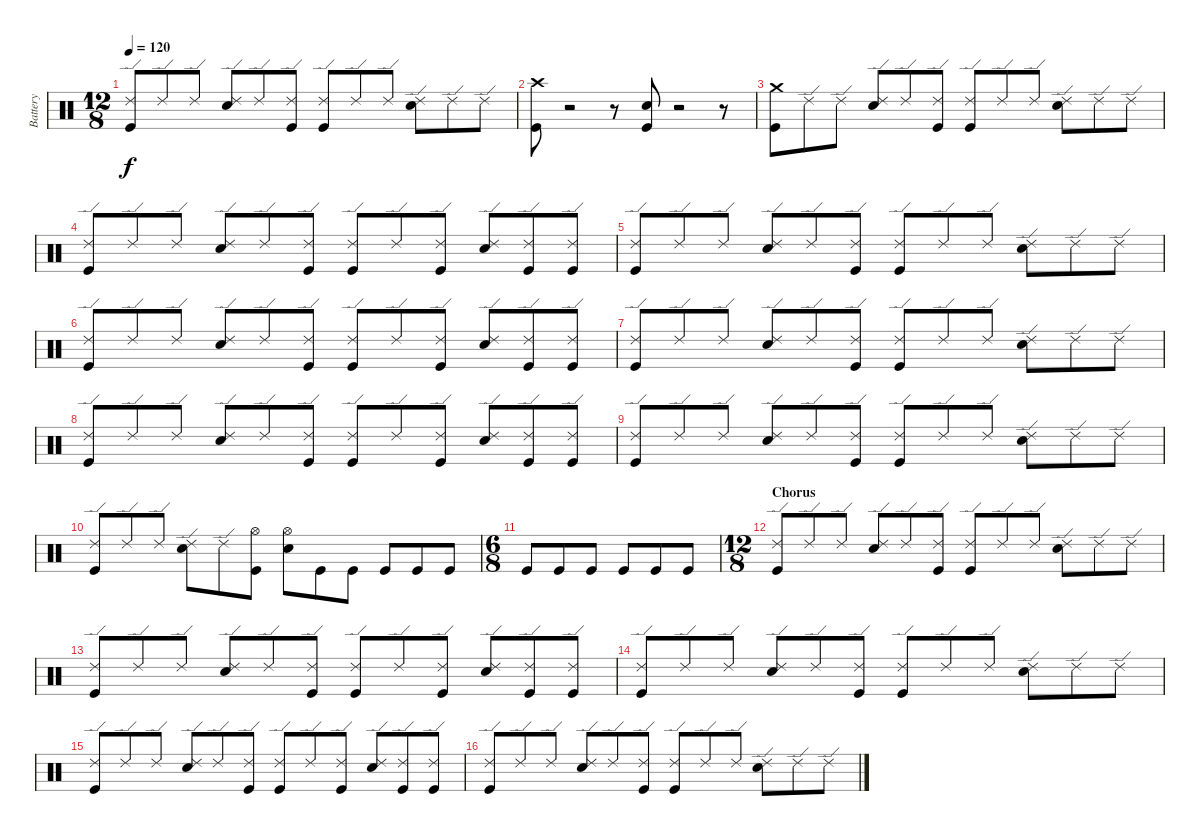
\track ("Battery" "Battery") {instrument percussion}
\staff {score}
\articulation defaults
\ts (12 8)
\tempo 120
\clef neutral
\ks c
("Ride (edge) 2" "Kick (hit)").8{dy f} "Ride (edge) 2".8 "Ride (edge) 2".8 ("Ride (edge) 2" "Electric Snare (hit)").8 "Ride (edge) 2".8 ("Ride (edge) 2" "Kick (hit)").8 ("Ride (edge) 2" "Kick (hit)").8 "Ride (edge) 2".8 "Ride (edge) 2".8 ("Ride (edge) 2" "Electric Snare (hit)").8 "Ride (edge) 2".8 "Ride (edge) 2".8 |
("Crash high (hit)" "Kick (hit)").8 r.2 r.8 ("Electric Snare (hit)" "Kick (hit)").8 r.2 r.8 |
("Crash medium (hit)" "Kick (hit)").8 "Ride (edge) 2".8 "Ride (edge) 2".8 ("Ride (edge) 2" "Electric Snare (hit)").8 "Ride (edge) 2".8 ("Ride (edge) 2" "Kick (hit)").8 ("Ride (edge) 2" "Kick (hit)").8 "Ride (edge) 2".8 "Ride (edge) 2".8 ("Ride (edge) 2" "Electric Snare (hit)").8 "Ride (edge) 2".8 "Ride (edge) 2".8 |
("Ride (edge) 2" "Kick (hit)").8 "Ride (edge) 2".8 "Ride (edge) 2".8 ("Ride (edge) 2" "Electric Snare (hit)").8 "Ride (edge) 2".8 ("Ride (edge) 2" "Kick (hit)").8 ("Ride (edge) 2" "Kick (hit)").8 "Ride (edge) 2".8 ("Ride (edge) 2" "Kick (hit)").8 ("Ride (edge) 2" "Electric Snare (hit)").8 ("Ride (edge) 2" "Kick (hit)").8 ("Ride (edge) 2" "Kick (hit)").8 |
("Ride (edge) 2" "Kick (hit)").8 "Ride (edge) 2".8 "Ride (edge) 2".8 ("Ride (edge) 2" "Electric Snare (hit)").8 "Ride (edge) 2".8 ("Ride (edge) 2" "Kick (hit)").8 ("Ride (edge) 2" "Kick (hit)").8 "Ride (edge) 2".8 "Ride (edge) 2".8 ("Ride (edge) 2" "Electric Snare (hit)").8 "Ride (edge) 2".8 "Ride (edge) 2".8 |
("Ride (edge) 2" "Kick (hit)").8 "Ride (edge) 2".8 "Ride (edge) 2".8 ("Ride (edge) 2" "Electric Snare (hit)").8 "Ride (edge) 2".8 ("Ride (edge) 2" "Kick (hit)").8 ("Ride (edge) 2" "Kick (hit)").8 "Ride (edge) 2".8 ("Ride (edge) 2" "Kick (hit)").8 ("Ride (edge) 2" "Electric Snare (hit)").8 ("Ride (edge) 2" "Kick (hit)").8 ("Ride (edge) 2" "Kick (hit)").8 |
("Ride (edge) 2" "Kick (hit)").8 "Ride (edge) 2".8 "Ride (edge) 2".8 ("Ride (edge) 2" "Electric Snare (hit)").8 "Ride (edge) 2".8 ("Ride (edge) 2" "Kick (hit)").8 ("Ride (edge) 2" "Kick (hit)").8 "Ride (edge) 2".8 "Ride (edge) 2".8 ("Ride (edge) 2" "Electric Snare (hit)").8 "Ride (edge) 2".8 "Ride (edge) 2".8 |
("Ride (edge) 2" "Kick (hit)").8 "Ride (edge) 2".8 "Ride (edge) 2".8 ("Ride (edge) 2" "Electric Snare (hit)").8 "Ride (edge) 2".8 ("Ride (edge) 2" "Kick (hit)").8 ("Ride (edge) 2" "Kick (hit)").8 "Ride (edge) 2".8 ("Ride (edge) 2" "Kick (hit)").8 ("Ride (edge) 2" "Electric Snare (hit)").8 ("Ride (edge) 2" "Kick (hit)").8 ("Ride (edge) 2" "Kick (hit)").8 |
("Ride (edge) 2" "Kick (hit)").8 "Ride (edge) 2".8 "Ride (edge) 2".8 ("Ride (edge) 2" "Electric Snare (hit)").8 "Ride (edge) 2".8 ("Ride (edge) 2" "Kick (hit)").8 ("Ride (edge) 2" "Kick (hit)").8 "Ride (edge) 2".8 "Ride (edge) 2".8 ("Ride (edge) 2" "Electric Snare (hit)").8 "Ride (edge) 2".8 "Ride (edge) 2".8 |
("Ride (edge) 2" "Kick (hit)").8 "Ride (edge) 2".8 "Ride (edge) 2".8 ("Ride (edge) 2" "Electric Snare (hit)").8 "Ride (edge) 2".8 ("Hi-Hat (open)" "Kick (hit)").8 ("Hi-Hat (open)" "Electric Snare (hit)").8 "Kick (hit)".8 "Kick (hit)".8 "Kick (hit)".8 "Kick (hit)".8 "Kick (hit)".8 |
\ts (6 8)
"Kick (hit)".8 "Kick (hit)".8 "Kick (hit)".8 "Kick (hit)".8 "Kick (hit)".8 "Kick (hit)".8 |
\ts (12 8)
\section ("" "Chorus")
("Ride (edge) 2" "Kick (hit)").8 "Ride (edge) 2".8 "Ride (edge) 2".8 ("Ride (edge) 2" "Electric Snare (hit)").8 "Ride (edge) 2".8 ("Ride (edge) 2" "Kick (hit)").8 ("Ride (edge) 2" "Kick (hit)").8 "Ride (edge) 2".8 "Ride (edge) 2".8 ("Ride (edge) 2" "Electric Snare (hit)").8 "Ride (edge) 2".8 "Ride (edge) 2".8 |
("Ride (edge) 2" "Kick (hit)").8 "Ride (edge) 2".8 "Ride (edge) 2".8 ("Ride (edge) 2" "Electric Snare (hit)").8 "Ride (edge) 2".8 ("Ride (edge) 2" "Kick (hit)").8 ("Ride (edge) 2" "Kick (hit)").8 "Ride (edge) 2".8 ("Ride (edge) 2" "Kick (hit)").8 ("Ride (edge) 2" "Electric Snare (hit)").8 ("Ride (edge) 2" "Kick (hit)").8 ("Ride (edge) 2" "Kick (hit)").8 |
("Ride (edge) 2" "Kick (hit)").8 "Ride (edge) 2".8 "Ride (edge) 2".8 ("Ride (edge) 2" "Electric Snare (hit)").8 "Ride (edge) 2".8 ("Ride (edge) 2" "Kick (hit)").8 ("Ride (edge) 2" "Kick (hit)").8 "Ride (edge) 2".8 "Ride (edge) 2".8 ("Ride (edge) 2" "Electric Snare (hit)").8 "Ride (edge) 2".8 "Ride (edge) 2".8 |
("Ride (edge) 2" "Kick (hit)").8 "Ride (edge) 2".8 "Ride (edge) 2".8 ("Ride (edge) 2" "Electric Snare (hit)").8 "Ride (edge) 2".8 ("Ride (edge) 2" "Kick (hit)").8 ("Ride (edge) 2" "Kick (hit)").8 "Ride (edge) 2".8 ("Ride (edge) 2" "Kick (hit)").8 ("Ride (edge) 2" "Electric Snare (hit)").8 ("Ride (edge) 2" "Kick (hit)").8 ("Ride (edge) 2" "Kick (hit)").8 |
("Ride (edge) 2" "Kick (hit)").8 "Ride (edge) 2".8 "Ride (edge) 2".8 ("Ride (edge) 2" "Electric Snare (hit)").8 "Ride (edge) 2".8 ("Ride (edge) 2" "Kick (hit)").8 ("Ride (edge) 2" "Kick (hit)").8 "Ride (edge) 2".8 "Ride (edge) 2".8 ("Ride (edge) 2" "Electric Snare (hit)").8 "Ride (edge) 2".8 "Ride (edge) 2".8
